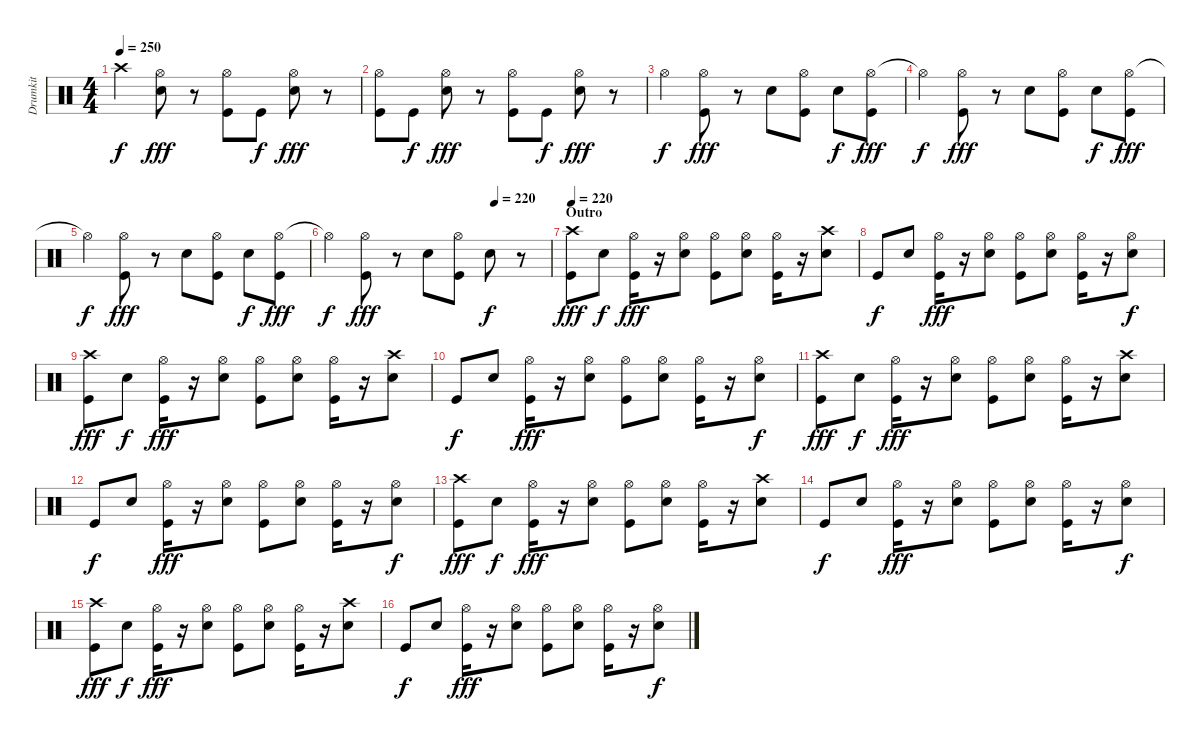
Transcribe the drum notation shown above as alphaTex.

\track ("Drumkit" "Drumkit") {instrument percussion}
\staff {score}
\articulation defaults
\ts (4 4)
\tempo 250
\clef neutral
\ks c "Crash high (hit)"{t}.4{dy f}
("Hi-Hat (open)" "Snare (hit) 2").8{dy fff} r.8 ("Hi-Hat (open)" "Kick (hit)").8 "Kick (hit)".8{dy f} ("Hi-Hat (open)" "Snare (hit) 2").8{dy fff} r.8 |
("Hi-Hat (open)" "Kick (hit)").8 "Kick (hit)".8{dy f} ("Hi-Hat (open)" "Snare (hit) 2").8{dy fff} r.8 ("Hi-Hat (open)" "Kick (hit)").8 "Kick (hit)".8{dy f} ("Hi-Hat (open)" "Snare (hit) 2").8{dy fff} r.8 |
"Hi-Hat (open)".4{dy f} ("Hi-Hat (open)" "Kick (hit)").8{dy fff} r.8 "Snare (hit) 2".8 ("Hi-Hat (open)" "Kick (hit)").8 "Snare (hit) 2".8{dy f} ("Hi-Hat (open)" "Kick (hit)").8{dy fff} |
"Hi-Hat (open)"{t}.4{dy f} ("Hi-Hat (open)" "Kick (hit)").8{dy fff} r.8 "Snare (hit) 2".8 ("Hi-Hat (open)" "Kick (hit)").8 "Snare (hit) 2".8{dy f} ("Hi-Hat (open)" "Kick (hit)").8{dy fff} |
"Hi-Hat (open)"{t}.4{dy f} ("Hi-Hat (open)" "Kick (hit)").8{dy fff} r.8 "Snare (hit) 2".8 ("Hi-Hat (open)" "Kick (hit)").8 "Snare (hit) 2".8{dy f} ("Hi-Hat (open)" "Kick (hit)").8{dy fff} |
\tempo (220 0.75)
"Hi-Hat (open)"{t}.4{dy f} ("Hi-Hat (open)" "Kick (hit)").8{dy fff} r.8 "Snare (hit) 2".8 ("Hi-Hat (open)" "Kick (hit)").8 "Snare (hit) 2".8{dy f} r.8 |
\section ("" "Outro")
\tempo 220
("Crash high (hit)" "Kick (hit)").8{dy fff} "Snare (hit) 2".8{dy f} ("Hi-Hat (open)" "Kick (hit)").16{dy fff} r.16 ("Hi-Hat (open)" "Snare (hit) 2").8 ("Hi-Hat (open)" "Kick (hit)").8 ("Hi-Hat (open)" "Snare (hit) 2").8 ("Hi-Hat (open)" "Kick (hit)").16 r.16 ("Crash high (hit)" "Snare (hit) 2").8 |
"Kick (hit)".8{dy f} "Snare (hit) 2".8 ("Hi-Hat (open)" "Kick (hit)").16{dy fff} r.16 ("Hi-Hat (open)" "Snare (hit) 2").8 ("Hi-Hat (open)" "Kick (hit)").8 ("Hi-Hat (open)" "Snare (hit) 2").8 ("Hi-Hat (open)" "Kick (hit)").16 r.16 ("Hi-Hat (open)" "Snare (hit) 2").8{dy f} |
("Crash high (hit)" "Kick (hit)").8{dy fff} "Snare (hit) 2".8{dy f} ("Hi-Hat (open)" "Kick (hit)").16{dy fff} r.16 ("Hi-Hat (open)" "Snare (hit) 2").8 ("Hi-Hat (open)" "Kick (hit)").8 ("Hi-Hat (open)" "Snare (hit) 2").8 ("Hi-Hat (open)" "Kick (hit)").16 r.16 ("Crash high (hit)" "Snare (hit) 2").8 |
"Kick (hit)".8{dy f} "Snare (hit) 2".8 ("Hi-Hat (open)" "Kick (hit)").16{dy fff} r.16 ("Hi-Hat (open)" "Snare (hit) 2").8 ("Hi-Hat (open)" "Kick (hit)").8 ("Hi-Hat (open)" "Snare (hit) 2").8 ("Hi-Hat (open)" "Kick (hit)").16 r.16 ("Hi-Hat (open)" "Snare (hit) 2").8{dy f} |
("Crash high (hit)" "Kick (hit)").8{dy fff} "Snare (hit) 2".8{dy f} ("Hi-Hat (open)" "Kick (hit)").16{dy fff} r.16 ("Hi-Hat (open)" "Snare (hit) 2").8 ("Hi-Hat (open)" "Kick (hit)").8 ("Hi-Hat (open)" "Snare (hit) 2").8 ("Hi-Hat (open)" "Kick (hit)").16 r.16 ("Crash high (hit)" "Snare (hit) 2").8 |
"Kick (hit)".8{dy f} "Snare (hit) 2".8 ("Hi-Hat (open)" "Kick (hit)").16{dy fff} r.16 ("Hi-Hat (open)" "Snare (hit) 2").8 ("Hi-Hat (open)" "Kick (hit)").8 ("Hi-Hat (open)" "Snare (hit) 2").8 ("Hi-Hat (open)" "Kick (hit)").16 r.16 ("Hi-Hat (open)" "Snare (hit) 2").8{dy f} |
("Crash high (hit)" "Kick (hit)").8{dy fff} "Snare (hit) 2".8{dy f} ("Hi-Hat (open)" "Kick (hit)").16{dy fff} r.16 ("Hi-Hat (open)" "Snare (hit) 2").8 ("Hi-Hat (open)" "Kick (hit)").8 ("Hi-Hat (open)" "Snare (hit) 2").8 ("Hi-Hat (open)" "Kick (hit)").16 r.16 ("Crash high (hit)" "Snare (hit) 2").8 |
"Kick (hit)".8{dy f} "Snare (hit) 2".8 ("Hi-Hat (open)" "Kick (hit)").16{dy fff} r.16 ("Hi-Hat (open)" "Snare (hit) 2").8 ("Hi-Hat (open)" "Kick (hit)").8 ("Hi-Hat (open)" "Snare (hit) 2").8 ("Hi-Hat (open)" "Kick (hit)").16 r.16 ("Hi-Hat (open)" "Snare (hit) 2").8{dy f} |
("Crash high (hit)" "Kick (hit)").8{dy fff} "Snare (hit) 2".8{dy f} ("Hi-Hat (open)" "Kick (hit)").16{dy fff} r.16 ("Hi-Hat (open)" "Snare (hit) 2").8 ("Hi-Hat (open)" "Kick (hit)").8 ("Hi-Hat (open)" "Snare (hit) 2").8 ("Hi-Hat (open)" "Kick (hit)").16 r.16 ("Crash high (hit)" "Snare (hit) 2").8 |
"Kick (hit)".8{dy f} "Snare (hit) 2".8 ("Hi-Hat (open)" "Kick (hit)").16{dy fff} r.16 ("Hi-Hat (open)" "Snare (hit) 2").8 ("Hi-Hat (open)" "Kick (hit)").8 ("Hi-Hat (open)" "Snare (hit) 2").8 ("Hi-Hat (open)" "Kick (hit)").16 r.16 ("Hi-Hat (open)" "Snare (hit) 2").8{dy f}
